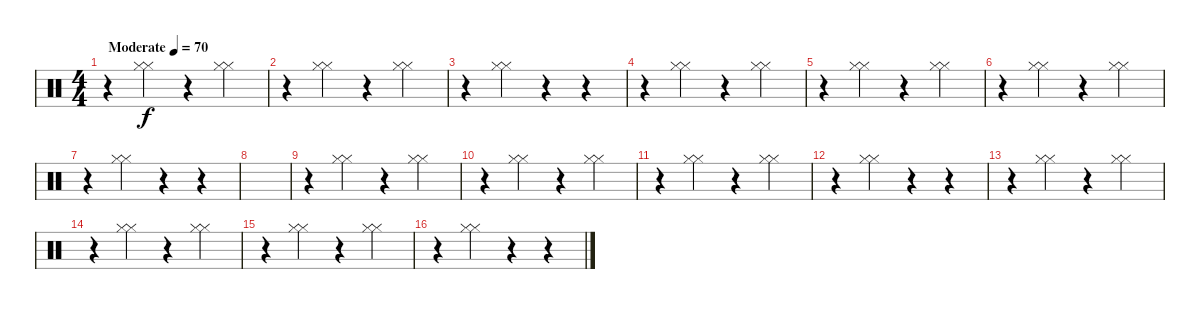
\track "" {instrument percussion}
\staff {score}
\articulation defaults
\ts (4 4)
\tempo (70 "Moderate")
\clef neutral
\ks c
r.4{dy f} ("Hi-Hat (closed)" "Hi-Hat (closed)").4 r.4 ("Hi-Hat (closed)" "Hi-Hat (closed)").4 |
r.4 ("Hi-Hat (closed)" "Hi-Hat (closed)").4 r.4 ("Hi-Hat (closed)" "Hi-Hat (closed)").4 |
r.4 ("Hi-Hat (closed)" "Hi-Hat (closed)").4 r.4 r.4 |
r.4 ("Hi-Hat (closed)" "Hi-Hat (closed)").4 r.4 ("Hi-Hat (closed)" "Hi-Hat (closed)").4 |
r.4 ("Hi-Hat (closed)" "Hi-Hat (closed)").4 r.4 ("Hi-Hat (closed)" "Hi-Hat (closed)").4 |
r.4 ("Hi-Hat (closed)" "Hi-Hat (closed)").4 r.4 ("Hi-Hat (closed)" "Hi-Hat (closed)").4 |
r.4 ("Hi-Hat (closed)" "Hi-Hat (closed)").4 r.4 r.4 |
|
r.4 ("Hi-Hat (closed)" "Hi-Hat (closed)").4 r.4 ("Hi-Hat (closed)" "Hi-Hat (closed)").4 |
r.4 ("Hi-Hat (closed)" "Hi-Hat (closed)").4 r.4 ("Hi-Hat (closed)" "Hi-Hat (closed)").4 |
r.4 ("Hi-Hat (closed)" "Hi-Hat (closed)").4 r.4 ("Hi-Hat (closed)" "Hi-Hat (closed)").4 |
r.4 ("Hi-Hat (closed)" "Hi-Hat (closed)").4 r.4 r.4 |
r.4 ("Hi-Hat (closed)" "Hi-Hat (closed)").4 r.4 ("Hi-Hat (closed)" "Hi-Hat (closed)").4 |
r.4 ("Hi-Hat (closed)" "Hi-Hat (closed)").4 r.4 ("Hi-Hat (closed)" "Hi-Hat (closed)").4 |
r.4 ("Hi-Hat (closed)" "Hi-Hat (closed)").4 r.4 ("Hi-Hat (closed)" "Hi-Hat (closed)").4 |
r.4 ("Hi-Hat (closed)" "Hi-Hat (closed)").4 r.4 r.4
